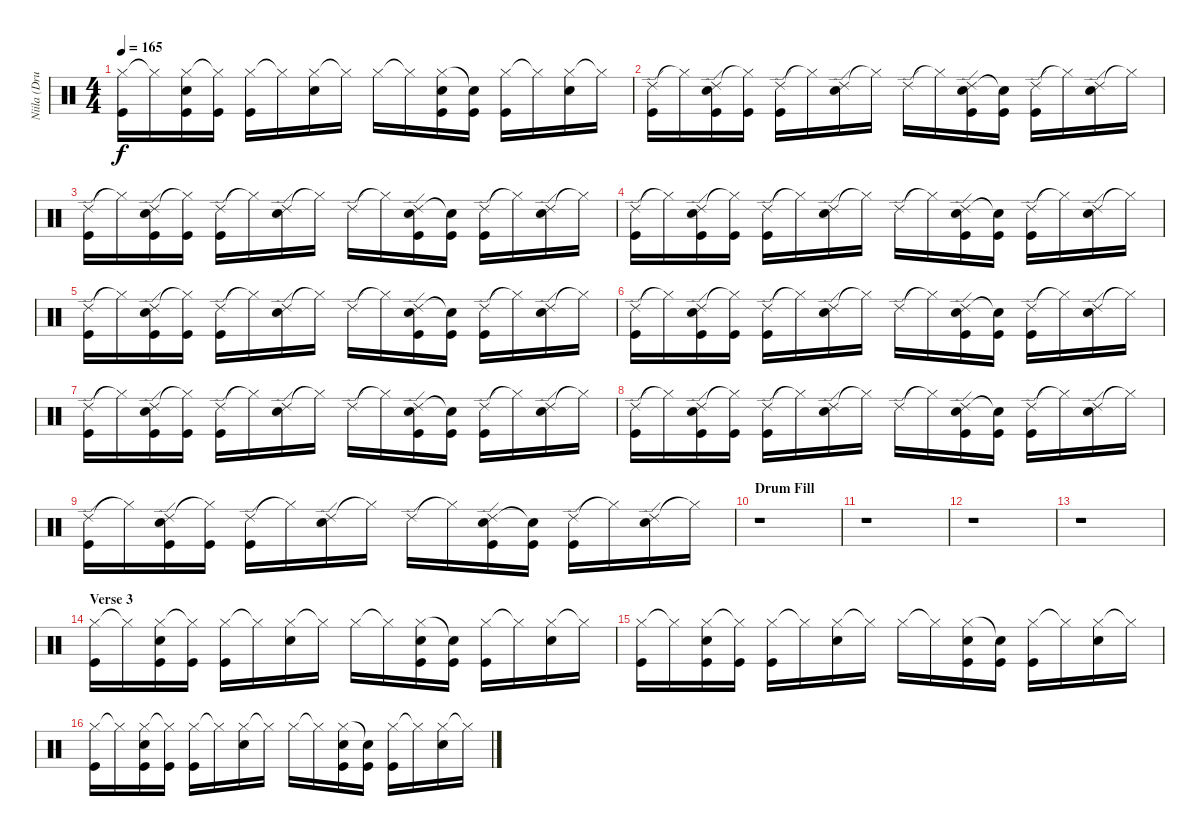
\track ("Niila (Drums)" "Niila (Dru") {instrument percussion}
\staff {score}
\articulation defaults
\ts (4 4)
\tempo 165
\clef neutral
\ks c
("Hi-Hat (closed)" "Kick (hit)").16{dy f} "Hi-Hat (closed)"{t}.16 ("Hi-Hat (closed)" "Snare (hit) 2" "Kick (hit)").16 ("Hi-Hat (closed)"{t} "Kick (hit)").16 ("Hi-Hat (closed)" "Kick (hit)").16 "Hi-Hat (closed)"{t}.16 ("Hi-Hat (closed)" "Snare (hit) 2").16 "Hi-Hat (closed)"{t}.16 "Hi-Hat (closed)".16 "Hi-Hat (closed)"{t}.16 ("Hi-Hat (closed)" "Snare (hit) 2" "Kick (hit)").16 ("Snare (hit)"{t} "Kick (hit)").16 ("Hi-Hat (closed)" "Kick (hit)").16 "Hi-Hat (closed)"{t}.16 ("Hi-Hat (closed)" "Snare (hit) 2").16 "Hi-Hat (closed)"{t}.16 |
("Ride (edge) 2" "Kick (hit)").16 "Hi-Hat (closed)"{t}.16 ("Ride (edge) 2" "Snare (hit) 2" "Kick (hit)").16 ("Hi-Hat (closed)"{t} "Kick (hit)").16 ("Ride (edge) 2" "Kick (hit)").16 "Hi-Hat (closed)"{t}.16 ("Ride (edge) 2" "Snare (hit) 2").16 "Hi-Hat (closed)"{t}.16 "Ride (edge) 2".16 "Hi-Hat (closed)"{t}.16 ("Ride (edge) 2" "Snare (hit) 2" "Kick (hit)").16 ("Snare (hit)"{t} "Kick (hit)").16 ("Ride (edge) 2" "Kick (hit)").16 "Hi-Hat (closed)"{t}.16 ("Ride (edge) 2" "Snare (hit) 2").16 "Hi-Hat (closed)"{t}.16 |
("Ride (edge) 2" "Kick (hit)").16 "Hi-Hat (closed)"{t}.16 ("Ride (edge) 2" "Snare (hit) 2" "Kick (hit)").16 ("Hi-Hat (closed)"{t} "Kick (hit)").16 ("Ride (edge) 2" "Kick (hit)").16 "Hi-Hat (closed)"{t}.16 ("Ride (edge) 2" "Snare (hit) 2").16 "Hi-Hat (closed)"{t}.16 "Ride (edge) 2".16 "Hi-Hat (closed)"{t}.16 ("Ride (edge) 2" "Snare (hit) 2" "Kick (hit)").16 ("Snare (hit)"{t} "Kick (hit)").16 ("Ride (edge) 2" "Kick (hit)").16 "Hi-Hat (closed)"{t}.16 ("Ride (edge) 2" "Snare (hit) 2").16 "Hi-Hat (closed)"{t}.16 |
("Ride (edge) 2" "Kick (hit)").16 "Hi-Hat (closed)"{t}.16 ("Ride (edge) 2" "Snare (hit) 2" "Kick (hit)").16 ("Hi-Hat (closed)"{t} "Kick (hit)").16 ("Ride (edge) 2" "Kick (hit)").16 "Hi-Hat (closed)"{t}.16 ("Ride (edge) 2" "Snare (hit) 2").16 "Hi-Hat (closed)"{t}.16 "Ride (edge) 2".16 "Hi-Hat (closed)"{t}.16 ("Ride (edge) 2" "Snare (hit) 2" "Kick (hit)").16 ("Snare (hit)"{t} "Kick (hit)").16 ("Ride (edge) 2" "Kick (hit)").16 "Hi-Hat (closed)"{t}.16 ("Ride (edge) 2" "Snare (hit) 2").16 "Hi-Hat (closed)"{t}.16 |
("Ride (edge) 2" "Kick (hit)").16 "Hi-Hat (closed)"{t}.16 ("Ride (edge) 2" "Snare (hit) 2" "Kick (hit)").16 ("Hi-Hat (closed)"{t} "Kick (hit)").16 ("Ride (edge) 2" "Kick (hit)").16 "Hi-Hat (closed)"{t}.16 ("Ride (edge) 2" "Snare (hit) 2").16 "Hi-Hat (closed)"{t}.16 "Ride (edge) 2".16 "Hi-Hat (closed)"{t}.16 ("Ride (edge) 2" "Snare (hit) 2" "Kick (hit)").16 ("Snare (hit)"{t} "Kick (hit)").16 ("Ride (edge) 2" "Kick (hit)").16 "Hi-Hat (closed)"{t}.16 ("Ride (edge) 2" "Snare (hit) 2").16 "Hi-Hat (closed)"{t}.16 |
("Ride (edge) 2" "Kick (hit)").16 "Hi-Hat (closed)"{t}.16 ("Ride (edge) 2" "Snare (hit) 2" "Kick (hit)").16 ("Hi-Hat (closed)"{t} "Kick (hit)").16 ("Ride (edge) 2" "Kick (hit)").16 "Hi-Hat (closed)"{t}.16 ("Ride (edge) 2" "Snare (hit) 2").16 "Hi-Hat (closed)"{t}.16 "Ride (edge) 2".16 "Hi-Hat (closed)"{t}.16 ("Ride (edge) 2" "Snare (hit) 2" "Kick (hit)").16 ("Snare (hit)"{t} "Kick (hit)").16 ("Ride (edge) 2" "Kick (hit)").16 "Hi-Hat (closed)"{t}.16 ("Ride (edge) 2" "Snare (hit) 2").16 "Hi-Hat (closed)"{t}.16 |
("Ride (edge) 2" "Kick (hit)").16 "Hi-Hat (closed)"{t}.16 ("Ride (edge) 2" "Snare (hit) 2" "Kick (hit)").16 ("Hi-Hat (closed)"{t} "Kick (hit)").16 ("Ride (edge) 2" "Kick (hit)").16 "Hi-Hat (closed)"{t}.16 ("Ride (edge) 2" "Snare (hit) 2").16 "Hi-Hat (closed)"{t}.16 "Ride (edge) 2".16 "Hi-Hat (closed)"{t}.16 ("Ride (edge) 2" "Snare (hit) 2" "Kick (hit)").16 ("Snare (hit)"{t} "Kick (hit)").16 ("Ride (edge) 2" "Kick (hit)").16 "Hi-Hat (closed)"{t}.16 ("Ride (edge) 2" "Snare (hit) 2").16 "Hi-Hat (closed)"{t}.16 |
("Ride (edge) 2" "Kick (hit)").16 "Hi-Hat (closed)"{t}.16 ("Ride (edge) 2" "Snare (hit) 2" "Kick (hit)").16 ("Hi-Hat (closed)"{t} "Kick (hit)").16 ("Ride (edge) 2" "Kick (hit)").16 "Hi-Hat (closed)"{t}.16 ("Ride (edge) 2" "Snare (hit) 2").16 "Hi-Hat (closed)"{t}.16 "Ride (edge) 2".16 "Hi-Hat (closed)"{t}.16 ("Ride (edge) 2" "Snare (hit) 2" "Kick (hit)").16 ("Snare (hit)"{t} "Kick (hit)").16 ("Ride (edge) 2" "Kick (hit)").16 "Hi-Hat (closed)"{t}.16 ("Ride (edge) 2" "Snare (hit) 2").16 "Hi-Hat (closed)"{t}.16 |
("Ride (edge) 2" "Kick (hit)").16 "Hi-Hat (closed)"{t}.16 ("Ride (edge) 2" "Snare (hit) 2" "Kick (hit)").16 ("Hi-Hat (closed)"{t} "Kick (hit)").16 ("Ride (edge) 2" "Kick (hit)").16 "Hi-Hat (closed)"{t}.16 ("Ride (edge) 2" "Snare (hit) 2").16 "Hi-Hat (closed)"{t}.16 "Ride (edge) 2".16 "Hi-Hat (closed)"{t}.16 ("Ride (edge) 2" "Snare (hit) 2" "Kick (hit)").16 ("Snare (hit)"{t} "Kick (hit)").16 ("Ride (edge) 2" "Kick (hit)").16 "Hi-Hat (closed)"{t}.16 ("Ride (edge) 2" "Snare (hit) 2").16 "Hi-Hat (closed)"{t}.16 |
\section ("" "Drum Fill")
r.1 |
r.1 |
r.1 |
r.1 |
\section ("" "Verse 3")
("Hi-Hat (closed)" "Kick (hit)").16 "Hi-Hat (closed)"{t}.16 ("Hi-Hat (closed)" "Snare (hit) 2" "Kick (hit)").16 ("Hi-Hat (closed)"{t} "Kick (hit)").16 ("Hi-Hat (closed)" "Kick (hit)").16 "Hi-Hat (closed)"{t}.16 ("Hi-Hat (closed)" "Snare (hit) 2").16 "Hi-Hat (closed)"{t}.16 "Hi-Hat (closed)".16 "Hi-Hat (closed)"{t}.16 ("Hi-Hat (closed)" "Snare (hit) 2" "Kick (hit)").16 ("Snare (hit)"{t} "Kick (hit)").16 ("Hi-Hat (closed)" "Kick (hit)").16 "Hi-Hat (closed)"{t}.16 ("Hi-Hat (closed)" "Snare (hit) 2").16 "Hi-Hat (closed)"{t}.16 |
("Hi-Hat (closed)" "Kick (hit)").16 "Hi-Hat (closed)"{t}.16 ("Hi-Hat (closed)" "Snare (hit) 2" "Kick (hit)").16 ("Hi-Hat (closed)"{t} "Kick (hit)").16 ("Hi-Hat (closed)" "Kick (hit)").16 "Hi-Hat (closed)"{t}.16 ("Hi-Hat (closed)" "Snare (hit) 2").16 "Hi-Hat (closed)"{t}.16 "Hi-Hat (closed)".16 "Hi-Hat (closed)"{t}.16 ("Hi-Hat (closed)" "Snare (hit) 2" "Kick (hit)").16 ("Snare (hit)"{t} "Kick (hit)").16 ("Hi-Hat (closed)" "Kick (hit)").16 "Hi-Hat (closed)"{t}.16 ("Hi-Hat (closed)" "Snare (hit) 2").16 "Hi-Hat (closed)"{t}.16 |
("Hi-Hat (closed)" "Kick (hit)").16 "Hi-Hat (closed)"{t}.16 ("Hi-Hat (closed)" "Snare (hit) 2" "Kick (hit)").16 ("Hi-Hat (closed)"{t} "Kick (hit)").16 ("Hi-Hat (closed)" "Kick (hit)").16 "Hi-Hat (closed)"{t}.16 ("Hi-Hat (closed)" "Snare (hit) 2").16 "Hi-Hat (closed)"{t}.16 "Hi-Hat (closed)".16 "Hi-Hat (closed)"{t}.16 ("Hi-Hat (closed)" "Snare (hit) 2" "Kick (hit)").16 ("Snare (hit)"{t} "Kick (hit)").16 ("Hi-Hat (closed)" "Kick (hit)").16 "Hi-Hat (closed)"{t}.16 ("Hi-Hat (closed)" "Snare (hit) 2").16 "Hi-Hat (closed)"{t}.16
